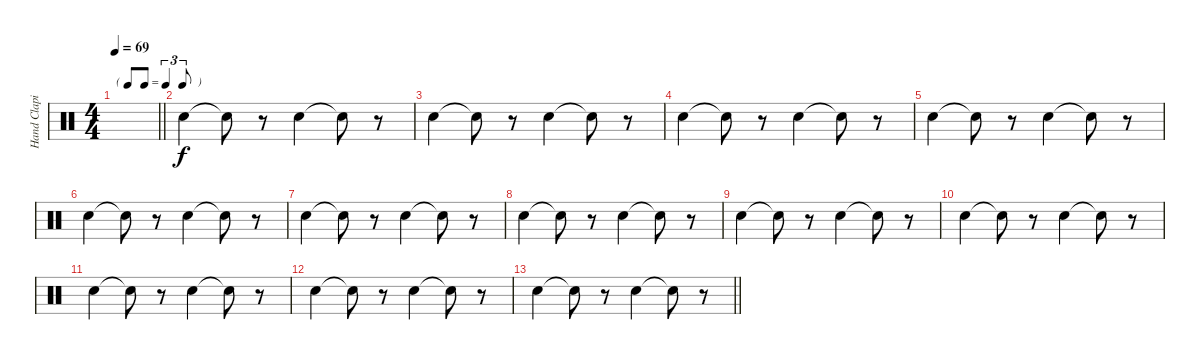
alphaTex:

\track ("Hand Claping" "Hand Clapi") {instrument percussion}
\staff {score}
\articulation defaults
\ts (4 4)
\tf triplet8th
\tempo 69
\clef neutral
\barLineRight lightlight
\ks c
|
"Hand Clap (hit)".4 "Hand Clap (hit)"{t}.8 r.8 "Hand Clap (hit)".4 "Hand Clap (hit)"{t}.8 r.8 |
"Hand Clap (hit)".4 "Hand Clap (hit)"{t}.8 r.8 "Hand Clap (hit)".4 "Hand Clap (hit)"{t}.8 r.8 |
"Hand Clap (hit)".4 "Hand Clap (hit)"{t}.8 r.8 "Hand Clap (hit)".4 "Hand Clap (hit)"{t}.8 r.8 |
"Hand Clap (hit)".4 "Hand Clap (hit)"{t}.8 r.8 "Hand Clap (hit)".4 "Hand Clap (hit)"{t}.8 r.8 |
"Hand Clap (hit)".4 "Hand Clap (hit)"{t}.8 r.8 "Hand Clap (hit)".4 "Hand Clap (hit)"{t}.8 r.8 |
"Hand Clap (hit)".4 "Hand Clap (hit)"{t}.8 r.8 "Hand Clap (hit)".4 "Hand Clap (hit)"{t}.8 r.8 |
"Hand Clap (hit)".4 "Hand Clap (hit)"{t}.8 r.8 "Hand Clap (hit)".4 "Hand Clap (hit)"{t}.8 r.8 |
"Hand Clap (hit)".4 "Hand Clap (hit)"{t}.8 r.8 "Hand Clap (hit)".4 "Hand Clap (hit)"{t}.8 r.8 |
"Hand Clap (hit)".4 "Hand Clap (hit)"{t}.8 r.8 "Hand Clap (hit)".4 "Hand Clap (hit)"{t}.8 r.8 |
"Hand Clap (hit)".4 "Hand Clap (hit)"{t}.8 r.8 "Hand Clap (hit)".4 "Hand Clap (hit)"{t}.8 r.8 |
"Hand Clap (hit)".4 "Hand Clap (hit)"{t}.8 r.8 "Hand Clap (hit)".4 "Hand Clap (hit)"{t}.8 r.8 |
\barLineRight lightlight "Hand Clap (hit)".4 "Hand Clap (hit)"{t}.8
r.8 "Hand Clap (hit)".4 "Hand Clap (hit)"{t}.8 r.8
